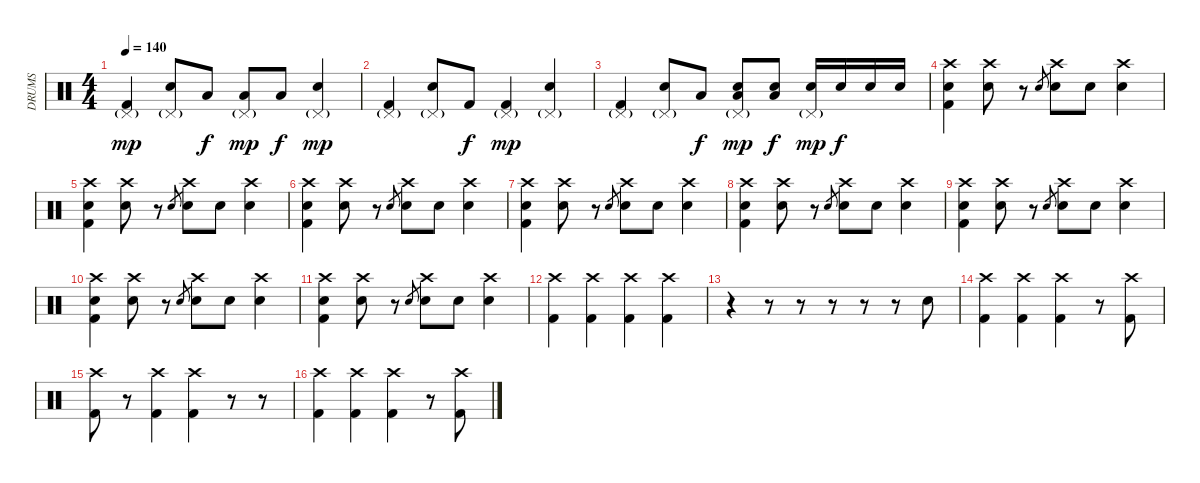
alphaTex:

\track ("DRUMS" "DRUMS") {instrument percussion}
\staff {score}
\articulation defaults
\ts (4 4)
\tempo 140
\clef neutral
\ks c
("Kick (hit) 2" "Pedal Hi-Hat (hit)"{g}).4{dy mp} ("Electric Snare (hit)" "Pedal Hi-Hat (hit)"{g}).8 "Low Tom (hit)".8{dy f} ("Low Tom (hit)" "Pedal Hi-Hat (hit)"{g}).8{dy mp} "Low Tom (hit)".8{dy f} ("Electric Snare (hit)" "Pedal Hi-Hat (hit)"{g}).4{dy mp} |
("Kick (hit) 2" "Pedal Hi-Hat (hit)"{g}).4 ("Electric Snare (hit)" "Pedal Hi-Hat (hit)"{g}).8 "Kick (hit) 2".8{dy f} ("Kick (hit) 2" "Pedal Hi-Hat (hit)"{g}).4{dy mp} ("Electric Snare (hit)" "Pedal Hi-Hat (hit)"{g}).4 |
("Kick (hit) 2" "Pedal Hi-Hat (hit)"{g}).4 ("Electric Snare (hit)" "Pedal Hi-Hat (hit)"{g}).8 "Low Tom (hit)".8{dy f} ("Low Tom (hit)" "Electric Snare (hit)" "Pedal Hi-Hat (hit)"{g}).8{dy mp} ("Low Tom (hit)" "Electric Snare (hit)").8{dy f} ("Electric Snare (hit)" "Pedal Hi-Hat (hit)"{g}).16{dy mp} "Electric Snare (hit)".16{dy f} "Electric Snare (hit)".16 "Electric Snare (hit)".16 |
("Kick (hit) 2" "Electric Snare (hit)" "Crash high (hit)").4 ("Electric Snare (hit)" "Crash high (hit)").8 r.8 "Electric Snare (hit)".8{gr} ("Electric Snare (hit)" "Crash high (hit)").8 "Electric Snare (hit)".8 ("Electric Snare (hit)" "Crash high (hit)").4 |
("Kick (hit) 2" "Electric Snare (hit)" "Crash high (hit)").4 ("Electric Snare (hit)" "Crash high (hit)").8 r.8 "Electric Snare (hit)".8{gr} ("Electric Snare (hit)" "Crash high (hit)").8 "Electric Snare (hit)".8 ("Electric Snare (hit)" "Crash high (hit)").4 |
("Kick (hit) 2" "Electric Snare (hit)" "Crash high (hit)").4 ("Electric Snare (hit)" "Crash high (hit)").8 r.8 "Electric Snare (hit)".8{gr} ("Electric Snare (hit)" "Crash high (hit)").8 "Electric Snare (hit)".8 ("Electric Snare (hit)" "Crash high (hit)").4 |
("Kick (hit) 2" "Electric Snare (hit)" "Crash high (hit)").4 ("Electric Snare (hit)" "Crash high (hit)").8 r.8 "Electric Snare (hit)".8{gr} ("Electric Snare (hit)" "Crash high (hit)").8 "Electric Snare (hit)".8 ("Electric Snare (hit)" "Crash high (hit)").4 |
("Kick (hit) 2" "Electric Snare (hit)" "Crash high (hit)").4 ("Electric Snare (hit)" "Crash high (hit)").8 r.8 "Electric Snare (hit)".8{gr} ("Electric Snare (hit)" "Crash high (hit)").8 "Electric Snare (hit)".8 ("Electric Snare (hit)" "Crash high (hit)").4 |
("Kick (hit) 2" "Electric Snare (hit)" "Crash high (hit)").4 ("Electric Snare (hit)" "Crash high (hit)").8 r.8 "Electric Snare (hit)".8{gr} ("Electric Snare (hit)" "Crash high (hit)").8 "Electric Snare (hit)".8 ("Electric Snare (hit)" "Crash high (hit)").4 |
("Kick (hit) 2" "Electric Snare (hit)" "Crash high (hit)").4 ("Electric Snare (hit)" "Crash high (hit)").8 r.8 "Electric Snare (hit)".8{gr} ("Electric Snare (hit)" "Crash high (hit)").8 "Electric Snare (hit)".8 ("Electric Snare (hit)" "Crash high (hit)").4 |
("Kick (hit) 2" "Electric Snare (hit)" "Crash high (hit)").4 ("Electric Snare (hit)" "Crash high (hit)").8 r.8 "Electric Snare (hit)".8{gr} ("Electric Snare (hit)" "Crash high (hit)").8 "Electric Snare (hit)".8 ("Electric Snare (hit)" "Crash high (hit)").4 |
("Kick (hit) 2" "Crash high (hit)").4 ("Kick (hit) 2" "Crash high (hit)").4 ("Kick (hit) 2" "Crash high (hit)").4 ("Kick (hit) 2" "Crash high (hit)").4 |
r.4 r.8 r.8 r.8 r.8 r.8 "Electric Snare (hit)".8 |
("Kick (hit) 2" "Crash high (hit)").4 ("Kick (hit) 2" "Crash high (hit)").4 ("Kick (hit) 2" "Crash high (hit)").4 r.8 ("Kick (hit) 2" "Crash high (hit)").8 |
("Kick (hit) 2" "Crash high (hit)").8 r.8 ("Kick (hit) 2" "Crash high (hit)").4 ("Kick (hit) 2" "Crash high (hit)").4 r.8 r.8 |
("Kick (hit) 2" "Crash high (hit)").4 ("Kick (hit) 2" "Crash high (hit)").4 ("Kick (hit) 2" "Crash high (hit)").4 r.8 ("Kick (hit) 2" "Crash high (hit)").8
